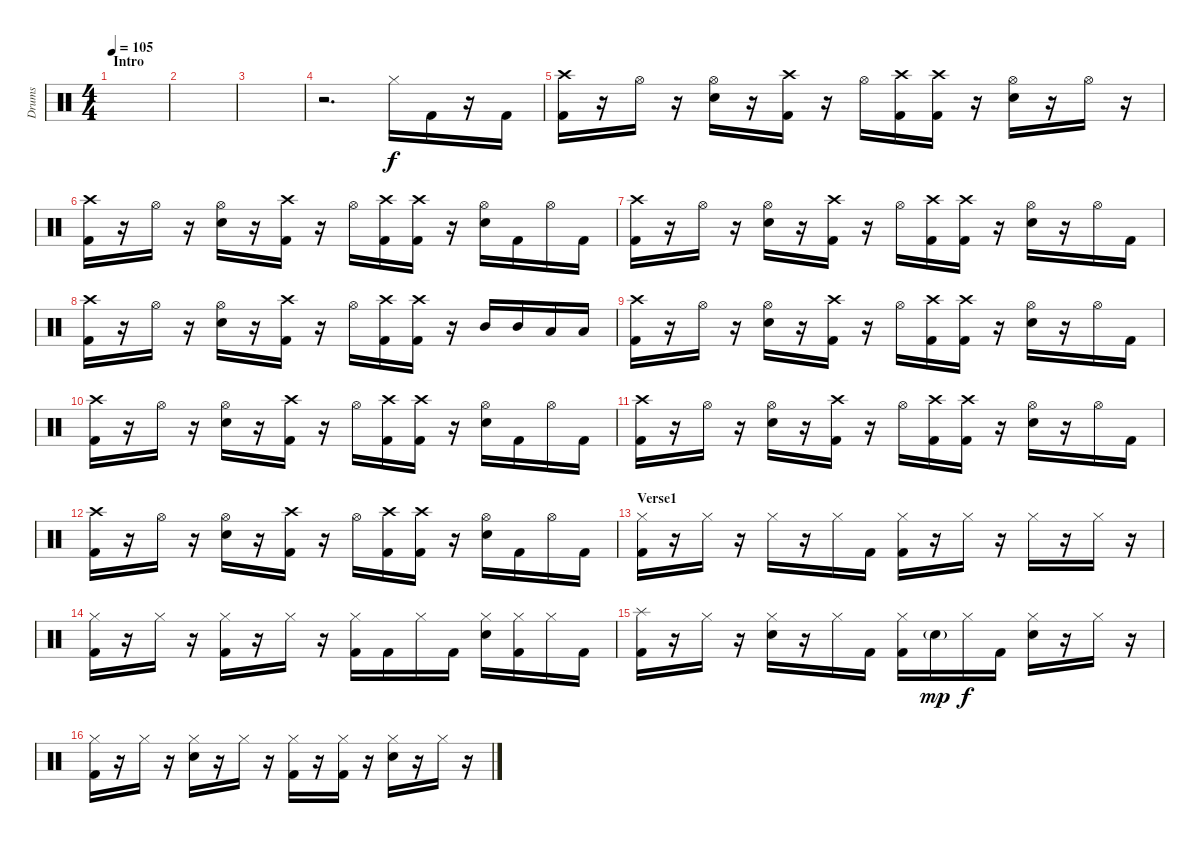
\track ("Drums" "Drums") {instrument percussion}
\staff {score}
\articulation defaults
\ts (4 4)
\section ("" "Intro")
\tempo 105
\clef neutral
\ks c
|
|
|
r.2{d} "Hi-Hat (closed)".16 "Kick (hit) 2".16 r.16 "Kick (hit) 2".16 |
("Crash high (hit)" "Kick (hit) 2").16 r.16 "Hi-Hat (open)".16 r.16 ("Hi-Hat (open)" "Snare (hit) 2").16 r.16 ("Crash high (hit)" "Kick (hit) 2").16 r.16 "Hi-Hat (open)".16 ("Crash high (hit)" "Kick (hit) 2").16 ("Crash high (hit)" "Kick (hit) 2").16 r.16 ("Hi-Hat (open)" "Snare (hit) 2").16 r.16 "Hi-Hat (open)".16 r.16 |
("Crash high (hit)" "Kick (hit) 2").16 r.16 "Hi-Hat (open)".16 r.16 ("Hi-Hat (open)" "Snare (hit) 2").16 r.16 ("Crash high (hit)" "Kick (hit) 2").16 r.16 "Hi-Hat (open)".16 ("Crash high (hit)" "Kick (hit) 2").16 ("Crash high (hit)" "Kick (hit) 2").16 r.16 ("Hi-Hat (open)" "Snare (hit) 2").16 "Kick (hit) 2".16 "Hi-Hat (open)".16 "Kick (hit) 2".16 |
("Crash high (hit)" "Kick (hit) 2").16 r.16 "Hi-Hat (open)".16 r.16 ("Hi-Hat (open)" "Snare (hit) 2").16 r.16 ("Crash high (hit)" "Kick (hit) 2").16 r.16 "Hi-Hat (open)".16 ("Crash high (hit)" "Kick (hit) 2").16 ("Crash high (hit)" "Kick (hit) 2").16 r.16 ("Hi-Hat (open)" "Snare (hit) 2").16 r.16 "Hi-Hat (open)".16 "Kick (hit) 2".16 |
("Crash high (hit)" "Kick (hit) 2").16 r.16 "Hi-Hat (open)".16 r.16 ("Hi-Hat (open)" "Snare (hit) 2").16 r.16 ("Crash high (hit)" "Kick (hit) 2").16 r.16 "Hi-Hat (open)".16 ("Crash high (hit)" "Kick (hit) 2").16 ("Crash high (hit)" "Kick (hit) 2").16 r.16 "Mid Tom (hit)".16 "Mid Tom (hit)".16 "Low Tom (hit)".16 "Low Tom (hit)".16 |
("Crash high (hit)" "Kick (hit) 2").16 r.16 "Hi-Hat (open)".16 r.16 ("Hi-Hat (open)" "Snare (hit) 2").16 r.16 ("Crash high (hit)" "Kick (hit) 2").16 r.16 "Hi-Hat (open)".16 ("Crash high (hit)" "Kick (hit) 2").16 ("Crash high (hit)" "Kick (hit) 2").16 r.16 ("Hi-Hat (open)" "Snare (hit) 2").16 r.16 "Hi-Hat (open)".16 "Kick (hit) 2".16 |
("Crash high (hit)" "Kick (hit) 2").16 r.16 "Hi-Hat (open)".16 r.16 ("Hi-Hat (open)" "Snare (hit) 2").16 r.16 ("Crash high (hit)" "Kick (hit) 2").16 r.16 "Hi-Hat (open)".16 ("Crash high (hit)" "Kick (hit) 2").16 ("Crash high (hit)" "Kick (hit) 2").16 r.16 ("Hi-Hat (open)" "Snare (hit) 2").16 "Kick (hit) 2".16 "Hi-Hat (open)".16 "Kick (hit) 2".16 |
("Crash high (hit)" "Kick (hit) 2").16 r.16 "Hi-Hat (open)".16 r.16 ("Hi-Hat (open)" "Snare (hit) 2").16 r.16 ("Crash high (hit)" "Kick (hit) 2").16 r.16 "Hi-Hat (open)".16 ("Crash high (hit)" "Kick (hit) 2").16 ("Crash high (hit)" "Kick (hit) 2").16 r.16 ("Hi-Hat (open)" "Snare (hit) 2").16 r.16 "Hi-Hat (open)".16 "Kick (hit) 2".16 |
("Crash high (hit)" "Kick (hit) 2").16 r.16 "Hi-Hat (open)".16 r.16 ("Hi-Hat (open)" "Snare (hit) 2").16 r.16 ("Crash high (hit)" "Kick (hit) 2").16 r.16 "Hi-Hat (open)".16 ("Crash high (hit)" "Kick (hit) 2").16 ("Crash high (hit)" "Kick (hit) 2").16 r.16 ("Hi-Hat (open)" "Snare (hit) 2").16 "Kick (hit) 2".16 "Hi-Hat (open)".16 "Kick (hit) 2".16 |
\section ("" "Verse1")
("Hi-Hat (closed)" "Kick (hit) 2").16 r.16 "Hi-Hat (closed)".16 r.16 "Hi-Hat (closed)".16 r.16 "Hi-Hat (closed)".16 "Kick (hit) 2".16 ("Hi-Hat (closed)" "Kick (hit) 2").16 r.16 "Hi-Hat (closed)".16 r.16 "Hi-Hat (closed)".16 r.16 "Hi-Hat (closed)".16 r.16 |
("Hi-Hat (closed)" "Kick (hit) 2").16 r.16 "Hi-Hat (closed)".16 r.16 ("Hi-Hat (closed)" "Kick (hit) 2").16 r.16 "Hi-Hat (closed)".16 r.16 ("Hi-Hat (closed)" "Kick (hit) 2").16 "Kick (hit) 2".16 "Hi-Hat (closed)".16 "Kick (hit) 2".16 ("Hi-Hat (closed)" "Snare (hit) 2").16 ("Hi-Hat (closed)" "Kick (hit) 2").16 "Hi-Hat (closed)".16 "Kick (hit) 2".16 |
("Splash (hit)" "Kick (hit) 2").16 r.16 "Hi-Hat (closed)".16 r.16 ("Hi-Hat (closed)" "Snare (hit) 2").16 r.16 "Hi-Hat (closed)".16 "Kick (hit) 2".16 ("Hi-Hat (closed)" "Kick (hit) 2").16 "Snare (hit) 2"{g}.16{dy mp} "Hi-Hat (closed)".16{dy f} "Kick (hit) 2".16 ("Hi-Hat (closed)" "Snare (hit) 2").16 r.16 "Hi-Hat (closed)".16 r.16 |
("Hi-Hat (closed)" "Kick (hit) 2").16 r.16 "Hi-Hat (closed)".16 r.16 ("Hi-Hat (closed)" "Snare (hit) 2").16 r.16 "Hi-Hat (closed)".16 r.16 ("Hi-Hat (closed)" "Kick (hit) 2").16 r.16 ("Hi-Hat (closed)" "Kick (hit) 2").16 r.16 ("Hi-Hat (closed)" "Snare (hit) 2").16 r.16 "Hi-Hat (closed)".16 r.16
